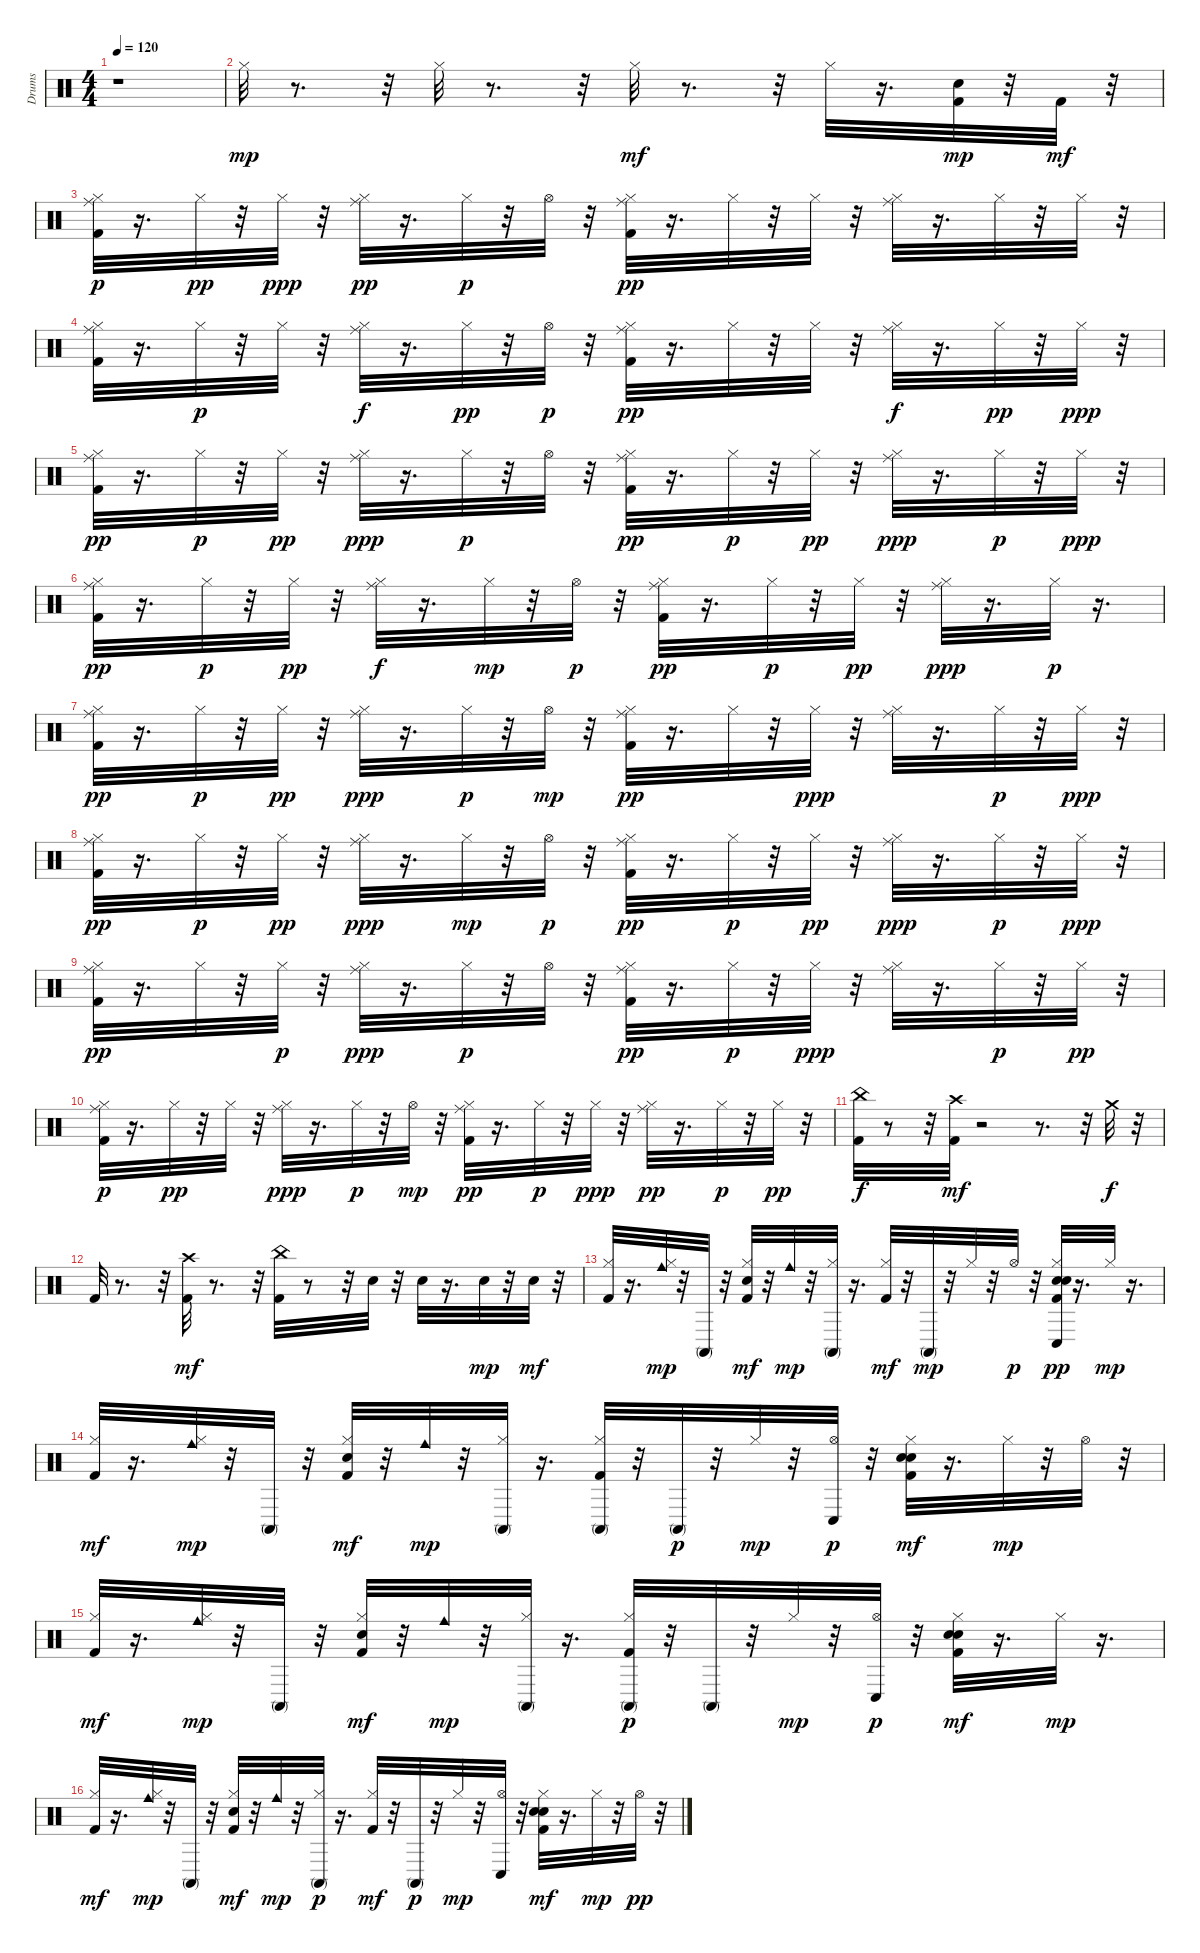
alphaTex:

\track ("Drums" "Drums") {instrument percussion}
\staff {score}
\articulation defaults
\ts (4 4)
\tempo 120
\clef neutral
\ks c
r.1{dy mp} |
"Hi-Hat (closed)".32 r.8{d} r.32 "Hi-Hat (closed)".32 r.8{d} r.32 "Hi-Hat (closed)".32{dy mf} r.8{d} r.32 "Hi-Hat (closed)".32 r.16{d} ("Kick (hit) 2" "Electric Snare (hit)").32{dy mp} r.32 "Kick (hit) 2".32{dy mf} r.32 |
("Kick (hit) 2" "Hi-Hat (closed)" "Ride (middle)").32{dy p} r.16{d} "Hi-Hat (closed)".32{dy pp} r.32 "Hi-Hat (closed)".32{dy ppp} r.32 ("Hi-Hat (closed)" "Ride (middle)").32{dy pp} r.16{d} "Hi-Hat (closed)".32{dy p} r.32 "Hi-Hat (open)".32 r.32 ("Kick (hit) 2" "Hi-Hat (closed)" "Ride (middle)").32{dy pp} r.16{d} "Hi-Hat (closed)".32 r.32 "Hi-Hat (closed)".32 r.32 ("Hi-Hat (closed)" "Ride (middle)").32 r.16{d} "Hi-Hat (closed)".32 r.32 "Hi-Hat (closed)".32 r.32 |
("Kick (hit) 2" "Hi-Hat (closed)" "Ride (middle)").32 r.16{d} "Hi-Hat (closed)".32{dy p} r.32 "Hi-Hat (closed)".32 r.32 ("Hi-Hat (closed)" "Ride (middle)").32{dy f} r.16{d} "Hi-Hat (closed)".32{dy pp} r.32 "Hi-Hat (open)".32{dy p} r.32 ("Kick (hit) 2" "Hi-Hat (closed)" "Ride (middle)").32{dy pp} r.16{d} "Hi-Hat (closed)".32 r.32 "Hi-Hat (closed)".32 r.32 ("Hi-Hat (closed)" "Ride (middle)").32{dy f} r.16{d} "Hi-Hat (closed)".32{dy pp} r.32 "Hi-Hat (closed)".32{dy ppp} r.32 |
("Kick (hit) 2" "Hi-Hat (closed)" "Ride (middle)").32{dy pp} r.16{d} "Hi-Hat (closed)".32{dy p} r.32 "Hi-Hat (closed)".32{dy pp} r.32 ("Hi-Hat (closed)" "Ride (middle)").32{dy ppp} r.16{d} "Hi-Hat (closed)".32{dy p} r.32 "Hi-Hat (open)".32 r.32 ("Kick (hit) 2" "Hi-Hat (closed)" "Ride (middle)").32{dy pp} r.16{d} "Hi-Hat (closed)".32{dy p} r.32 "Hi-Hat (closed)".32{dy pp} r.32 ("Hi-Hat (closed)" "Ride (middle)").32{dy ppp} r.16{d} "Hi-Hat (closed)".32{dy p} r.32 "Hi-Hat (closed)".32{dy ppp} r.32 |
("Kick (hit) 2" "Hi-Hat (closed)" "Ride (middle)").32{dy pp} r.16{d} "Hi-Hat (closed)".32{dy p} r.32 "Hi-Hat (closed)".32{dy pp} r.32 ("Hi-Hat (closed)" "Ride (middle)").32{dy f} r.16{d} "Hi-Hat (closed)".32{dy mp} r.32 "Hi-Hat (open)".32{dy p} r.32 ("Kick (hit) 2" "Hi-Hat (closed)" "Ride (middle)").32{dy pp} r.16{d} "Hi-Hat (closed)".32{dy p} r.32 "Hi-Hat (closed)".32{dy pp} r.32 ("Hi-Hat (closed)" "Ride (middle)").32{dy ppp} r.16{d} "Hi-Hat (closed)".32{dy p} r.16{d} |
("Kick (hit) 2" "Hi-Hat (closed)" "Ride (middle)").32{dy pp} r.16{d} "Hi-Hat (closed)".32{dy p} r.32 "Hi-Hat (closed)".32{dy pp} r.32 ("Hi-Hat (closed)" "Ride (middle)").32{dy ppp} r.16{d} "Hi-Hat (closed)".32{dy p} r.32 "Hi-Hat (open)".32{dy mp} r.32 ("Kick (hit) 2" "Hi-Hat (closed)" "Ride (middle)").32{dy pp} r.16{d} "Hi-Hat (closed)".32 r.32 "Hi-Hat (closed)".32{dy ppp} r.32 ("Hi-Hat (closed)" "Ride (middle)").32 r.16{d} "Hi-Hat (closed)".32{dy p} r.32 "Hi-Hat (closed)".32{dy ppp} r.32 |
("Kick (hit) 2" "Hi-Hat (closed)" "Ride (middle)").32{dy pp} r.16{d} "Hi-Hat (closed)".32{dy p} r.32 "Hi-Hat (closed)".32{dy pp} r.32 ("Hi-Hat (closed)" "Ride (middle)").32{dy ppp} r.16{d} "Hi-Hat (closed)".32{dy mp} r.32 "Hi-Hat (open)".32{dy p} r.32 ("Kick (hit) 2" "Hi-Hat (closed)" "Ride (middle)").32{dy pp} r.16{d} "Hi-Hat (closed)".32{dy p} r.32 "Hi-Hat (closed)".32{dy pp} r.32 ("Hi-Hat (closed)" "Ride (middle)").32{dy ppp} r.16{d} "Hi-Hat (closed)".32{dy p} r.32 "Hi-Hat (closed)".32{dy ppp} r.32 |
("Kick (hit) 2" "Hi-Hat (closed)" "Ride (middle)").32{dy pp} r.16{d} "Hi-Hat (closed)".32 r.32 "Hi-Hat (closed)".32{dy p} r.32 ("Hi-Hat (closed)" "Ride (middle)").32{dy ppp} r.16{d} "Hi-Hat (closed)".32{dy p} r.32 "Hi-Hat (open)".32 r.32 ("Kick (hit) 2" "Hi-Hat (closed)" "Ride (middle)").32{dy pp} r.16{d} "Hi-Hat (closed)".32{dy p} r.32 "Hi-Hat (closed)".32{dy ppp} r.32 ("Hi-Hat (closed)" "Ride (middle)").32 r.16{d} "Hi-Hat (closed)".32{dy p} r.32 "Hi-Hat (closed)".32{dy pp} r.32 |
("Kick (hit) 2" "Hi-Hat (closed)" "Ride (middle)").32{dy p} r.16{d} "Hi-Hat (closed)".32{dy pp} r.32 "Hi-Hat (closed)".32 r.32 ("Hi-Hat (closed)" "Ride (middle)").32{dy ppp} r.16{d} "Hi-Hat (closed)".32{dy p} r.32 "Hi-Hat (open)".32{dy mp} r.32 ("Kick (hit) 2" "Hi-Hat (closed)" "Ride (middle)").32{dy pp} r.16{d} "Hi-Hat (closed)".32{dy p} r.32 "Hi-Hat (closed)".32{dy ppp} r.32 ("Hi-Hat (closed)" "Ride (middle)").32{dy pp} r.16{d} "Hi-Hat (closed)".32{dy p} r.32 "Hi-Hat (closed)".32{dy pp} r.32 |
("Kick (hit) 2" "China (hit)").32{dy f} r.8 r.32 ("Crash high (hit)" "Kick (hit) 2").32{dy mf} r.2 r.8{d} r.32 "Crash medium (hit)".32{dy f} r.32 |
"Kick (hit) 2".32 r.8{d} r.32 ("Kick (hit) 2" "Crash high (hit)").32{dy mf} r.8{d} r.32 ("Kick (hit) 2" "China (hit)").32 r.8 r.32 "Electric Snare (hit)".32 r.32 "Electric Snare (hit)".32 r.16{d} "Electric Snare (hit)".32{dy mp} r.32 "Electric Snare (hit)".32{dy mf} r.32 |
("Hi-Hat (closed)" "Kick (hit) 2").32 r.16{d} ("Cowbell medium (hit)" "Hi-Hat (closed)").32{dy mp} r.32 "Conga high (mute)".32 r.32 ("Hi-Hat (closed)" "Electric Snare (hit)" "Kick (hit) 2").32{dy mf} r.32 "Cowbell medium (hit)".32{dy mp} r.32 ("Hi-Hat (closed)" "Conga high (mute)").32 r.16{d} ("Hi-Hat (closed)" "Kick (hit) 2").32{dy mf} r.32 "Conga high (mute)".32{dy mp} r.32 "Hi-Hat (closed)".32 r.32 "Hi-Hat (open)".32{dy p} r.32 ("Hi-Hat (closed)" "Kick (hit) 2" "Hand Clap (hit)" "Electric Snare (hit)" "Conga low (hit)").32{dy pp} r.16{d} "Hi-Hat (closed)".32{dy mp} r.16{d} |
("Hi-Hat (closed)" "Kick (hit) 2").32{dy mf} r.16{d} ("Hi-Hat (closed)" "Cowbell medium (hit)").32{dy mp} r.32 "Conga high (mute)".32 r.32 ("Hi-Hat (closed)" "Electric Snare (hit)" "Kick (hit) 2").32{dy mf} r.32 "Cowbell medium (hit)".32{dy mp} r.32 ("Hi-Hat (closed)" "Conga high (mute)").32 r.16{d} ("Hi-Hat (closed)" "Kick (hit) 2" "Conga high (mute)").32 r.32 "Conga high (mute)".32{dy p} r.32 "Hi-Hat (closed)".32{dy mp} r.32 ("Hi-Hat (open)" "Conga low (hit)").32{dy p} r.32 ("Kick (hit) 2" "Hi-Hat (closed)" "Electric Snare (hit)" "Hand Clap (hit)").32{dy mf} r.16{d} "Hi-Hat (closed)".32{dy mp} r.32 "Hi-Hat (open)".32 r.32 |
("Hi-Hat (closed)" "Kick (hit) 2").32{dy mf} r.16{d} ("Hi-Hat (closed)" "Cowbell medium (hit)").32{dy mp} r.32 "Conga high (mute)".32 r.32 ("Hi-Hat (closed)" "Electric Snare (hit)" "Kick (hit) 2").32{dy mf} r.32 "Cowbell medium (hit)".32{dy mp} r.32 ("Hi-Hat (closed)" "Conga high (mute)").32 r.16{d} ("Kick (hit) 2" "Hi-Hat (closed)" "Conga high (mute)").32{dy p} r.32 "Conga high (mute)".32 r.32 "Hi-Hat (closed)".32{dy mp} r.32 ("Hi-Hat (open)" "Conga low (hit)").32{dy p} r.32 ("Hi-Hat (closed)" "Hand Clap (hit)" "Electric Snare (hit)" "Kick (hit) 2").32{dy mf} r.16{d} "Hi-Hat (closed)".32{dy mp} r.16{d} |
("Hi-Hat (closed)" "Kick (hit) 2").32{dy mf} r.16{d} ("Hi-Hat (closed)" "Cowbell medium (hit)").32{dy mp} r.32 "Conga high (mute)".32 r.32 ("Hi-Hat (closed)" "Electric Snare (hit)" "Kick (hit) 2").32{dy mf} r.32 "Cowbell medium (hit)".32{dy mp} r.32 ("Hi-Hat (closed)" "Conga high (mute)").32{dy p} r.16{d} ("Hi-Hat (closed)" "Kick (hit) 2").32{dy mf} r.32 "Conga high (mute)".32{dy p} r.32 "Hi-Hat (closed)".32{dy mp} r.32 ("Hi-Hat (open)" "Conga low (hit)").32 r.32 ("Kick (hit) 2" "Hi-Hat (closed)" "Electric Snare (hit)" "Hand Clap (hit)").32{dy mf} r.16{d} "Hi-Hat (closed)".32{dy mp} r.32 "Hi-Hat (open)".32{dy pp} r.32
